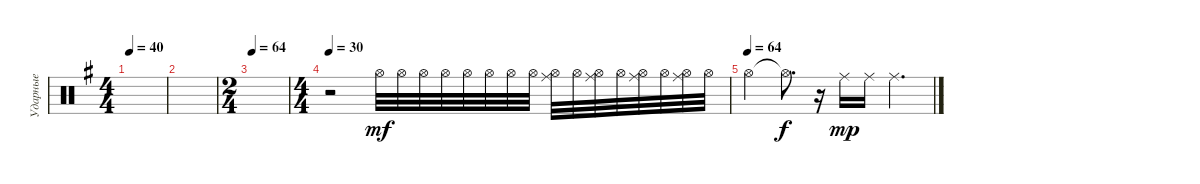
\track ("Ударные" "Ударные") {instrument percussion}
\staff {score}
\articulation defaults
\ts (4 4)
\tempo 40
\clef neutral
\ks eminor
|
|
\ts (2 4)
\tempo 64
|
\ts (4 4)
\tempo 30
r.2 "Hi-Hat (open)".32{dy mf} "Hi-Hat (open)".32 "Hi-Hat (open)".32 "Hi-Hat (open)".32 "Hi-Hat (open)".32 "Hi-Hat (open)".32 "Hi-Hat (open)".32 "Hi-Hat (open)".32 ("Hi-Hat (open)" "Ride (middle)").32{bd 120} "Hi-Hat (open)".32 ("Hi-Hat (open)" "Ride (middle)").32{bd 120} "Hi-Hat (open)".32{bd 120} ("Hi-Hat (open)" "Ride (middle)").32{bd 120} "Hi-Hat (open)".32 ("Hi-Hat (open)" "Ride (middle)").32{bd 120} "Hi-Hat (open)".32{bd 120} |
\tempo (64)
"Hi-Hat (open)".4 "Hi-Hat (open)"{t}.8{d dy f} r.16 "Ride (middle)".16{dy mp} "Ride (middle)".16 "Ride (middle)".4{d}
